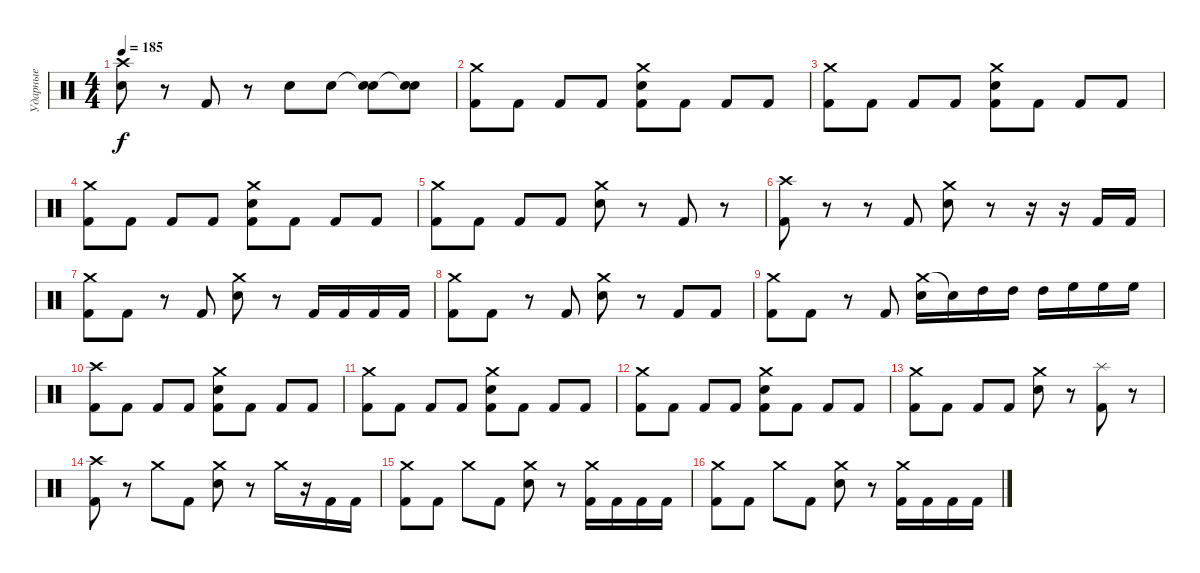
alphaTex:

\track ("Ударные" "Ударные") {instrument percussion}
\staff {score}
\articulation defaults
\ts (4 4)
\tempo 185
\clef neutral
\ks c
("Crash high (hit)" "Electric Snare (hit)").8{dy f} r.8 "Kick (hit) 2".8 r.8 "Electric Snare (hit)".8 "Electric Snare (hit)".8 ("Snare (hit)"{t} "Electric Snare (hit)").8 ("Snare (hit)"{t} "Electric Snare (hit)").8 |
("Crash medium (hit)" "Kick (hit) 2").8 "Kick (hit) 2".8 "Kick (hit) 2".8 "Kick (hit) 2".8 ("Crash medium (hit)" "Electric Snare (hit)" "Kick (hit) 2").8 "Kick (hit) 2".8 "Kick (hit) 2".8 "Kick (hit) 2".8 |
("Crash medium (hit)" "Kick (hit) 2").8 "Kick (hit) 2".8 "Kick (hit) 2".8 "Kick (hit) 2".8 ("Crash medium (hit)" "Electric Snare (hit)" "Kick (hit) 2").8 "Kick (hit) 2".8 "Kick (hit) 2".8 "Kick (hit) 2".8 |
("Crash medium (hit)" "Kick (hit) 2").8 "Kick (hit) 2".8 "Kick (hit) 2".8 "Kick (hit) 2".8 ("Crash medium (hit)" "Electric Snare (hit)" "Kick (hit) 2").8 "Kick (hit) 2".8 "Kick (hit) 2".8 "Kick (hit) 2".8 |
("Crash medium (hit)" "Kick (hit) 2").8 "Kick (hit) 2".8 "Kick (hit) 2".8 "Kick (hit) 2".8 ("Crash medium (hit)" "Electric Snare (hit)").8 r.8 "Kick (hit) 2".8 r.8 |
("Crash high (hit)" "Kick (hit) 2").8 r.8 r.8 "Kick (hit) 2".8 ("Crash medium (hit)" "Electric Snare (hit)").8 r.8 r.16 r.16 "Kick (hit) 2".16 "Kick (hit) 2".16 |
("Crash medium (hit)" "Kick (hit) 2").8 "Kick (hit) 2".8 r.8 "Kick (hit) 2".8 ("Crash medium (hit)" "Electric Snare (hit)").8 r.8 "Kick (hit) 2".16 "Kick (hit) 2".16 "Kick (hit) 2".16 "Kick (hit) 2".16 |
("Crash medium (hit)" "Kick (hit) 2").8 "Kick (hit) 2".8 r.8 "Kick (hit) 2".8 ("Crash medium (hit)" "Electric Snare (hit)").8 r.8 "Kick (hit) 2".8 "Kick (hit) 2".8 |
("Crash medium (hit)" "Kick (hit) 2").8 "Kick (hit) 2".8 r.8 "Kick (hit) 2".8 ("Crash medium (hit)" "Electric Snare (hit)").16 "Electric Snare (hit)"{t}.16 "High Tom (hit)".16 "High Tom (hit)".16 "High Tom (hit)".16 "High Floor Tom (hit)".16 "High Floor Tom (hit)".16 "High Floor Tom (hit)".16 |
("Crash high (hit)" "Kick (hit) 2").8 "Kick (hit) 2".8 "Kick (hit) 2".8 "Kick (hit) 2".8 ("Crash medium (hit)" "Electric Snare (hit)" "Kick (hit) 2").8 "Kick (hit) 2".8 "Kick (hit) 2".8 "Kick (hit) 2".8 |
("Crash medium (hit)" "Kick (hit) 2").8 "Kick (hit) 2".8 "Kick (hit) 2".8 "Kick (hit) 2".8 ("Crash medium (hit)" "Electric Snare (hit)" "Kick (hit) 2").8 "Kick (hit) 2".8 "Kick (hit) 2".8 "Kick (hit) 2".8 |
("Crash medium (hit)" "Kick (hit) 2").8 "Kick (hit) 2".8 "Kick (hit) 2".8 "Kick (hit) 2".8 ("Crash medium (hit)" "Electric Snare (hit)" "Kick (hit) 2").8 "Kick (hit) 2".8 "Kick (hit) 2".8 "Kick (hit) 2".8 |
("Crash medium (hit)" "Kick (hit) 2").8 "Kick (hit) 2".8 "Kick (hit) 2".8 "Kick (hit) 2".8 ("Crash medium (hit)" "Electric Snare (hit)").8 r.8 ("Splash (hit)" "Kick (hit) 2").8 r.8 |
("Crash high (hit)" "Kick (hit) 2").8 r.8 "Crash medium (hit)".8 "Kick (hit) 2".8 ("Crash medium (hit)" "Electric Snare (hit)").8 r.8 "Crash medium (hit)".16 r.16 "Kick (hit) 2".16 "Kick (hit) 2".16 |
("Crash medium (hit)" "Kick (hit) 2").8 "Kick (hit) 2".8 "Crash medium (hit)".8 "Kick (hit) 2".8 ("Crash medium (hit)" "Electric Snare (hit)").8 r.8 ("Crash medium (hit)" "Kick (hit) 2").16 "Kick (hit) 2".16 "Kick (hit) 2".16 "Kick (hit) 2".16 |
("Crash medium (hit)" "Kick (hit) 2").8 "Kick (hit) 2".8 "Crash medium (hit)".8 "Kick (hit) 2".8 ("Crash medium (hit)" "Electric Snare (hit)").8 r.8 ("Crash medium (hit)" "Kick (hit) 2").16 "Kick (hit) 2".16 "Kick (hit) 2".16 "Kick (hit) 2".16
